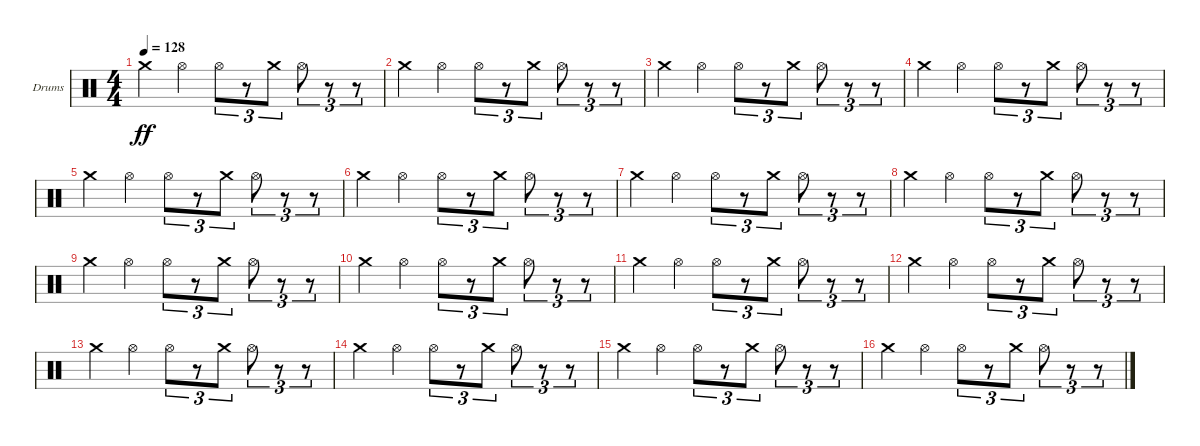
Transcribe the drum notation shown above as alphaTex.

\defaultSystemsLayout 4
\bracketExtendMode groupsimilarinstruments
\firstSystemTrackNameOrientation horizontal
\otherSystemsTrackNameOrientation horizontal
\track ("Drumkit" "Drums") {instrument percussion}
\staff {score}
\articulation defaults
\ts (4 4)
\tempo 128
\clef neutral
\scale
0.333333
\ks c "Crash medium (hit)".4{dy ff} "Hi-Hat (open)".4 "Hi-Hat (open)".8{tu (3 2)}
r.8{tu (3 2)} "Crash medium (hit)".8{tu (3 2)} "Hi-Hat (open)".8{tu (3 2)} r.8{tu (3 2)} r.8{tu (3 2)} |
\scale
0.333333 "Crash medium (hit)".4 "Hi-Hat (open)".4 "Hi-Hat (open)".8{tu (3 2)} r.8{tu (3 2)} "Crash medium (hit)".8{tu (3 2)} "Hi-Hat (open)".8{tu (3 2)} r.8{tu (3 2)} r.8{tu (3 2)} |
\scale
0.333333 "Crash medium (hit)".4 "Hi-Hat (open)".4 "Hi-Hat (open)".8{tu (3 2)} r.8{tu (3 2)} "Crash medium (hit)".8{tu (3 2)} "Hi-Hat (open)".8{tu (3 2)} r.8{tu (3 2)} r.8{tu (3 2)} |
\scale
0.333333 "Crash medium (hit)".4 "Hi-Hat (open)".4 "Hi-Hat (open)".8{tu (3 2)} r.8{tu (3 2)} "Crash medium (hit)".8{tu (3 2)} "Hi-Hat (open)".8{tu (3 2)} r.8{tu (3 2)} r.8{tu (3 2)} |
\scale
0.333333 "Crash medium (hit)".4 "Hi-Hat (open)".4 "Hi-Hat (open)".8{tu (3 2)} r.8{tu (3 2)} "Crash medium (hit)".8{tu (3 2)} "Hi-Hat (open)".8{tu (3 2)} r.8{tu (3 2)} r.8{tu (3 2)} |
\scale
0.333333 "Crash medium (hit)".4 "Hi-Hat (open)".4 "Hi-Hat (open)".8{tu (3 2)} r.8{tu (3 2)} "Crash medium (hit)".8{tu (3 2)} "Hi-Hat (open)".8{tu (3 2)} r.8{tu (3 2)} r.8{tu (3 2)} |
\scale
0.333333 "Crash medium (hit)".4 "Hi-Hat (open)".4 "Hi-Hat (open)".8{tu (3 2)} r.8{tu (3 2)} "Crash medium (hit)".8{tu (3 2)} "Hi-Hat (open)".8{tu (3 2)} r.8{tu (3 2)} r.8{tu (3 2)} |
\scale
0.333333 "Crash medium (hit)".4 "Hi-Hat (open)".4 "Hi-Hat (open)".8{tu (3 2)} r.8{tu (3 2)} "Crash medium (hit)".8{tu (3 2)} "Hi-Hat (open)".8{tu (3 2)} r.8{tu (3 2)} r.8{tu (3 2)} |
\scale
0.333333 "Crash medium (hit)".4 "Hi-Hat (open)".4 "Hi-Hat (open)".8{tu (3 2)} r.8{tu (3 2)} "Crash medium (hit)".8{tu (3 2)} "Hi-Hat (open)".8{tu (3 2)} r.8{tu (3 2)} r.8{tu (3 2)} |
\scale
0.333333 "Crash medium (hit)".4 "Hi-Hat (open)".4 "Hi-Hat (open)".8{tu (3 2)} r.8{tu (3 2)} "Crash medium (hit)".8{tu (3 2)} "Hi-Hat (open)".8{tu (3 2)} r.8{tu (3 2)} r.8{tu (3 2)} |
\scale
0.333333 "Crash medium (hit)".4 "Hi-Hat (open)".4 "Hi-Hat (open)".8{tu (3 2)} r.8{tu (3 2)} "Crash medium (hit)".8{tu (3 2)} "Hi-Hat (open)".8{tu (3 2)} r.8{tu (3 2)} r.8{tu (3 2)} |
\scale
0.333333 "Crash medium (hit)".4 "Hi-Hat (open)".4 "Hi-Hat (open)".8{tu (3 2)} r.8{tu (3 2)} "Crash medium (hit)".8{tu (3 2)} "Hi-Hat (open)".8{tu (3 2)} r.8{tu (3 2)} r.8{tu (3 2)} |
\scale
0.333333 "Crash medium (hit)".4 "Hi-Hat (open)".4 "Hi-Hat (open)".8{tu (3 2)} r.8{tu (3 2)} "Crash medium (hit)".8{tu (3 2)} "Hi-Hat (open)".8{tu (3 2)} r.8{tu (3 2)} r.8{tu (3 2)} |
\scale
0.333333 "Crash medium (hit)".4 "Hi-Hat (open)".4 "Hi-Hat (open)".8{tu (3 2)} r.8{tu (3 2)} "Crash medium (hit)".8{tu (3 2)} "Hi-Hat (open)".8{tu (3 2)} r.8{tu (3 2)} r.8{tu (3 2)} |
\scale
0.333333 "Crash medium (hit)".4 "Hi-Hat (open)".4 "Hi-Hat (open)".8{tu (3 2)} r.8{tu (3 2)} "Crash medium (hit)".8{tu (3 2)} "Hi-Hat (open)".8{tu (3 2)} r.8{tu (3 2)} r.8{tu (3 2)} |
\scale
0.333333 "Crash medium (hit)".4 "Hi-Hat (open)".4 "Hi-Hat (open)".8{tu (3 2)} r.8{tu (3 2)} "Crash medium (hit)".8{tu (3 2)} "Hi-Hat (open)".8{tu (3 2)} r.8{tu (3 2)} r.8{tu (3 2)}
